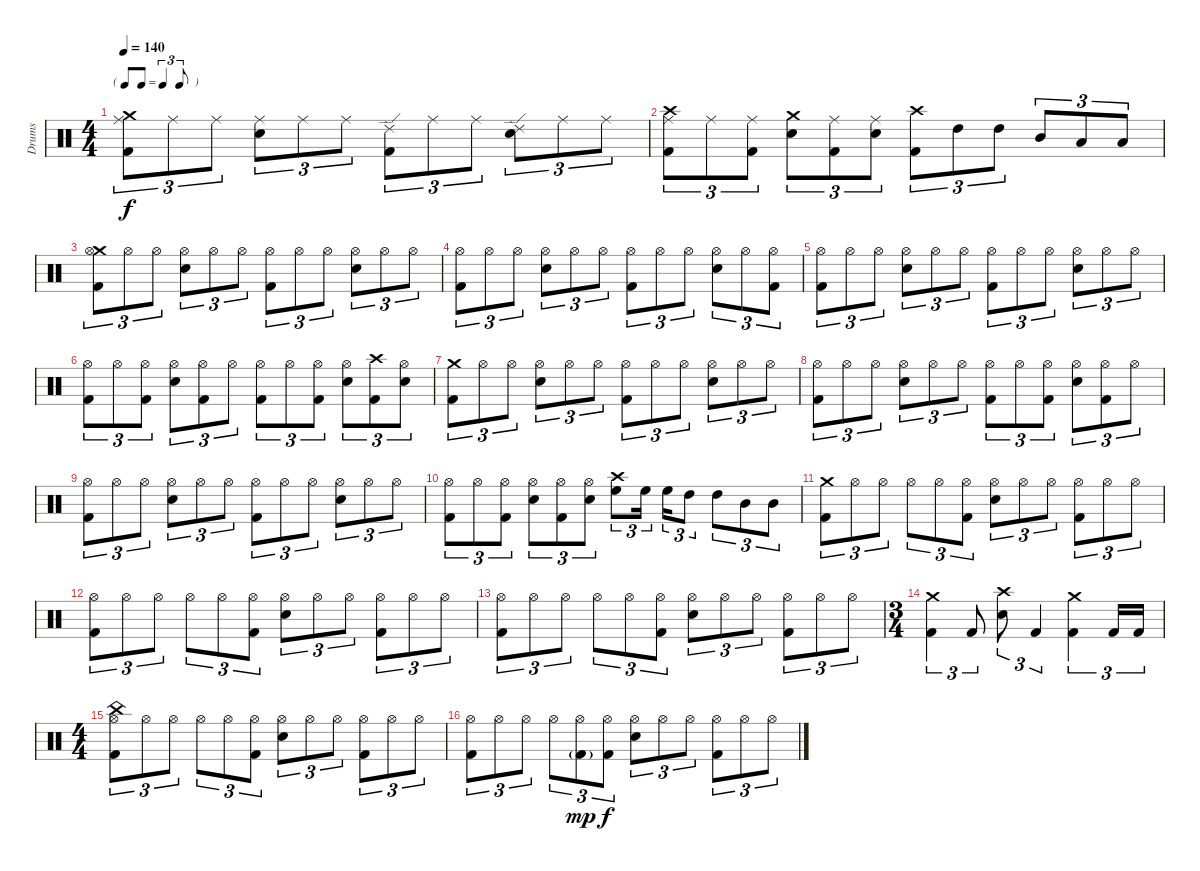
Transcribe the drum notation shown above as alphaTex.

\track ("Drums" "Drums") {instrument percussion}
\staff {score}
\articulation defaults
\ts (4 4)
\tf triplet8th
\tempo 140
\clef neutral
\ks c
("Crash medium (hit)" "Ride (middle)" "Kick (hit) 2").8{tu (3 2) dy f} "Ride (middle)".8{tu (3 2)} "Ride (middle)".8{tu (3 2)} ("Ride (middle)" "Snare (hit) 2").8{tu (3 2)} "Ride (middle)".8{tu (3 2)} "Ride (middle)".8{tu (3 2)} ("Ride (edge) 2" "Kick (hit) 2").8{tu (3 2)} "Ride (middle)".8{tu (3 2)} "Ride (middle)".8{tu (3 2)} ("Ride (edge) 2" "Snare (hit) 2").8{tu (3 2)} "Ride (middle)".8{tu (3 2)} "Ride (middle)".8{tu (3 2)} |
("Crash high (hit)" "Ride (middle)" "Kick (hit) 2").8{tu (3 2)} "Ride (middle)".8{tu (3 2)} ("Ride (middle)" "Kick (hit) 2").8{tu (3 2)} ("Crash medium (hit)" "Snare (hit) 2").8{tu (3 2)} ("Ride (middle)" "Kick (hit) 2").8{tu (3 2)} ("Ride (middle)" "Snare (hit) 2").8{tu (3 2)} ("Crash high (hit)" "Kick (hit) 2").8{tu (3 2)} "High Tom (hit)".8{tu (3 2)} "High Tom (hit)".8{tu (3 2)} "Mid Tom (hit)".8{tu (3 2)} "Low Tom (hit)".8{tu (3 2)} "Low Tom (hit)".8{tu (3 2)} |
("Crash medium (hit)" "Hi-Hat (open)" "Kick (hit) 2").8{tu (3 2)} "Hi-Hat (open)".8{tu (3 2)} "Hi-Hat (open)".8{tu (3 2)} ("Hi-Hat (open)" "Electric Snare (hit)").8{tu (3 2)} "Hi-Hat (open)".8{tu (3 2)} "Hi-Hat (open)".8{tu (3 2)} ("Hi-Hat (open)" "Kick (hit) 2").8{tu (3 2)} "Hi-Hat (open)".8{tu (3 2)} "Hi-Hat (open)".8{tu (3 2)} ("Hi-Hat (open)" "Electric Snare (hit)").8{tu (3 2)} "Hi-Hat (open)".8{tu (3 2)} "Hi-Hat (open)".8{tu (3 2)} |
("Hi-Hat (open)" "Kick (hit) 2").8{tu (3 2)} "Hi-Hat (open)".8{tu (3 2)} "Hi-Hat (open)".8{tu (3 2)} ("Hi-Hat (open)" "Electric Snare (hit)").8{tu (3 2)} "Hi-Hat (open)".8{tu (3 2)} "Hi-Hat (open)".8{tu (3 2)} ("Hi-Hat (open)" "Kick (hit) 2").8{tu (3 2)} "Hi-Hat (open)".8{tu (3 2)} "Hi-Hat (open)".8{tu (3 2)} ("Hi-Hat (open)" "Electric Snare (hit)").8{tu (3 2)} "Hi-Hat (open)".8{tu (3 2)} ("Hi-Hat (open)" "Kick (hit) 2").8{tu (3 2)} |
("Hi-Hat (open)" "Kick (hit) 2").8{tu (3 2)} "Hi-Hat (open)".8{tu (3 2)} "Hi-Hat (open)".8{tu (3 2)} ("Hi-Hat (open)" "Electric Snare (hit)").8{tu (3 2)} "Hi-Hat (open)".8{tu (3 2)} "Hi-Hat (open)".8{tu (3 2)} ("Hi-Hat (open)" "Kick (hit) 2").8{tu (3 2)} "Hi-Hat (open)".8{tu (3 2)} "Hi-Hat (open)".8{tu (3 2)} ("Hi-Hat (open)" "Electric Snare (hit)").8{tu (3 2)} "Hi-Hat (open)".8{tu (3 2)} "Hi-Hat (open)".8{tu (3 2)} |
("Hi-Hat (open)" "Kick (hit) 2").8{tu (3 2)} "Hi-Hat (open)".8{tu (3 2)} ("Hi-Hat (open)" "Kick (hit) 2").8{tu (3 2)} ("Hi-Hat (open)" "Electric Snare (hit)").8{tu (3 2)} ("Hi-Hat (open)" "Kick (hit) 2").8{tu (3 2)} "Hi-Hat (open)".8{tu (3 2)} ("Hi-Hat (open)" "Kick (hit) 2").8{tu (3 2)} "Hi-Hat (open)".8{tu (3 2)} ("Hi-Hat (open)" "Kick (hit) 2").8{tu (3 2)} ("Hi-Hat (open)" "Electric Snare (hit)").8{tu (3 2)} ("Crash high (hit)" "Kick (hit) 2").8{tu (3 2)} ("Hi-Hat (open)" "Electric Snare (hit)").8{tu (3 2)} |
("Crash medium (hit)" "Kick (hit) 2").8{tu (3 2)} "Hi-Hat (open)".8{tu (3 2)} "Hi-Hat (open)".8{tu (3 2)} ("Hi-Hat (open)" "Electric Snare (hit)").8{tu (3 2)} "Hi-Hat (open)".8{tu (3 2)} "Hi-Hat (open)".8{tu (3 2)} ("Hi-Hat (open)" "Kick (hit) 2").8{tu (3 2)} "Hi-Hat (open)".8{tu (3 2)} "Hi-Hat (open)".8{tu (3 2)} ("Hi-Hat (open)" "Electric Snare (hit)").8{tu (3 2)} "Hi-Hat (open)".8{tu (3 2)} "Hi-Hat (open)".8{tu (3 2)} |
("Hi-Hat (open)" "Kick (hit) 2").8{tu (3 2)} "Hi-Hat (open)".8{tu (3 2)} "Hi-Hat (open)".8{tu (3 2)} ("Hi-Hat (open)" "Electric Snare (hit)").8{tu (3 2)} "Hi-Hat (open)".8{tu (3 2)} "Hi-Hat (open)".8{tu (3 2)} ("Hi-Hat (open)" "Kick (hit) 2").8{tu (3 2)} "Hi-Hat (open)".8{tu (3 2)} ("Hi-Hat (open)" "Kick (hit) 2").8{tu (3 2)} ("Hi-Hat (open)" "Electric Snare (hit)").8{tu (3 2)} ("Hi-Hat (open)" "Kick (hit) 2").8{tu (3 2)} "Hi-Hat (open)".8{tu (3 2)} |
("Hi-Hat (open)" "Kick (hit) 2").8{tu (3 2)} "Hi-Hat (open)".8{tu (3 2)} "Hi-Hat (open)".8{tu (3 2)} ("Hi-Hat (open)" "Electric Snare (hit)").8{tu (3 2)} "Hi-Hat (open)".8{tu (3 2)} "Hi-Hat (open)".8{tu (3 2)} ("Hi-Hat (open)" "Kick (hit) 2").8{tu (3 2)} "Hi-Hat (open)".8{tu (3 2)} "Hi-Hat (open)".8{tu (3 2)} ("Hi-Hat (open)" "Electric Snare (hit)").8{tu (3 2)} "Hi-Hat (open)".8{tu (3 2)} "Hi-Hat (open)".8{tu (3 2)} |
("Hi-Hat (open)" "Kick (hit) 2").8{tu (3 2)} "Hi-Hat (open)".8{tu (3 2)} ("Hi-Hat (open)" "Kick (hit) 2").8{tu (3 2)} ("Hi-Hat (open)" "Electric Snare (hit)").8{tu (3 2)} ("Hi-Hat (open)" "Kick (hit) 2").8{tu (3 2)} ("Hi-Hat (open)" "Electric Snare (hit)").8{tu (3 2)} ("Crash high (hit)" "High Floor Tom (hit)").8{tu (3 2)} "High Floor Tom (hit)".16{tu (3 2) beam splitsecondary} "High Floor Tom (hit)".16{tu (3 2)} "High Tom (hit)".8{tu (3 2)} "High Tom (hit)".8{tu (3 2)} "Mid Tom (hit)".8{tu (3 2)} "Mid Tom (hit)".8{tu (3 2)} |
("Crash medium (hit)" "Kick (hit) 2").8{tu (3 2)} "Hi-Hat (open)".8{tu (3 2)} "Hi-Hat (open)".8{tu (3 2)} "Hi-Hat (open)".8{tu (3 2)} "Hi-Hat (open)".8{tu (3 2)} ("Hi-Hat (open)" "Kick (hit) 2").8{tu (3 2)} ("Hi-Hat (open)" "Electric Snare (hit)").8{tu (3 2)} "Hi-Hat (open)".8{tu (3 2)} "Hi-Hat (open)".8{tu (3 2)} ("Hi-Hat (open)" "Kick (hit) 2").8{tu (3 2)} "Hi-Hat (open)".8{tu (3 2)} "Hi-Hat (open)".8{tu (3 2)} |
("Hi-Hat (open)" "Kick (hit) 2").8{tu (3 2)} "Hi-Hat (open)".8{tu (3 2)} "Hi-Hat (open)".8{tu (3 2)} "Hi-Hat (open)".8{tu (3 2)} "Hi-Hat (open)".8{tu (3 2)} ("Hi-Hat (open)" "Kick (hit) 2").8{tu (3 2)} ("Hi-Hat (open)" "Electric Snare (hit)").8{tu (3 2)} "Hi-Hat (open)".8{tu (3 2)} "Hi-Hat (open)".8{tu (3 2)} ("Hi-Hat (open)" "Kick (hit) 2").8{tu (3 2)} "Hi-Hat (open)".8{tu (3 2)} "Hi-Hat (open)".8{tu (3 2)} |
("Hi-Hat (open)" "Kick (hit) 2").8{tu (3 2)} "Hi-Hat (open)".8{tu (3 2)} "Hi-Hat (open)".8{tu (3 2)} "Hi-Hat (open)".8{tu (3 2)} "Hi-Hat (open)".8{tu (3 2)} ("Hi-Hat (open)" "Kick (hit) 2").8{tu (3 2)} ("Hi-Hat (open)" "Electric Snare (hit)").8{tu (3 2)} "Hi-Hat (open)".8{tu (3 2)} "Hi-Hat (open)".8{tu (3 2)} ("Hi-Hat (open)" "Kick (hit) 2").8{tu (3 2)} "Hi-Hat (open)".8{tu (3 2)} "Hi-Hat (open)".8{tu (3 2)} |
\ts (3 4)
("Crash medium (hit)" "Kick (hit) 2").4{tu (3 2)} "Kick (hit) 2".8{tu (3 2)} ("Crash high (hit)" "Electric Snare (hit)").8{tu (3 2)} "Kick (hit) 2".4{tu (3 2)} ("Crash medium (hit)" "Kick (hit) 2").4{tu (3 2)} "Kick (hit) 2".16{tu (3 2)} "Kick (hit) 2".16{tu (3 2)} |
\ts (4 4)
("China (hit)" "Hi-Hat (open)" "Kick (hit) 2").8{tu (3 2)} "Hi-Hat (open)".8{tu (3 2)} "Hi-Hat (open)".8{tu (3 2)} "Hi-Hat (open)".8{tu (3 2)} "Hi-Hat (open)".8{tu (3 2)} ("Hi-Hat (open)" "Kick (hit) 2").8{tu (3 2)} ("Hi-Hat (open)" "Electric Snare (hit)").8{tu (3 2)} "Hi-Hat (open)".8{tu (3 2)} "Hi-Hat (open)".8{tu (3 2)} ("Hi-Hat (open)" "Kick (hit) 2").8{tu (3 2)} "Hi-Hat (open)".8{tu (3 2)} "Hi-Hat (open)".8{tu (3 2)} |
("Hi-Hat (open)" "Kick (hit) 2").8{tu (3 2)} "Hi-Hat (open)".8{tu (3 2)} "Hi-Hat (open)".8{tu (3 2)} "Hi-Hat (open)".8{tu (3 2)} ("Hi-Hat (open)" "Kick (hit) 2"{g}).8{tu (3 2) dy mp} ("Hi-Hat (open)" "Kick (hit) 2").8{tu (3 2) dy f} ("Hi-Hat (open)" "Electric Snare (hit)").8{tu (3 2)} "Hi-Hat (open)".8{tu (3 2)} "Hi-Hat (open)".8{tu (3 2)} ("Hi-Hat (open)" "Kick (hit) 2").8{tu (3 2)} "Hi-Hat (open)".8{tu (3 2)} "Hi-Hat (open)".8{tu (3 2)}
